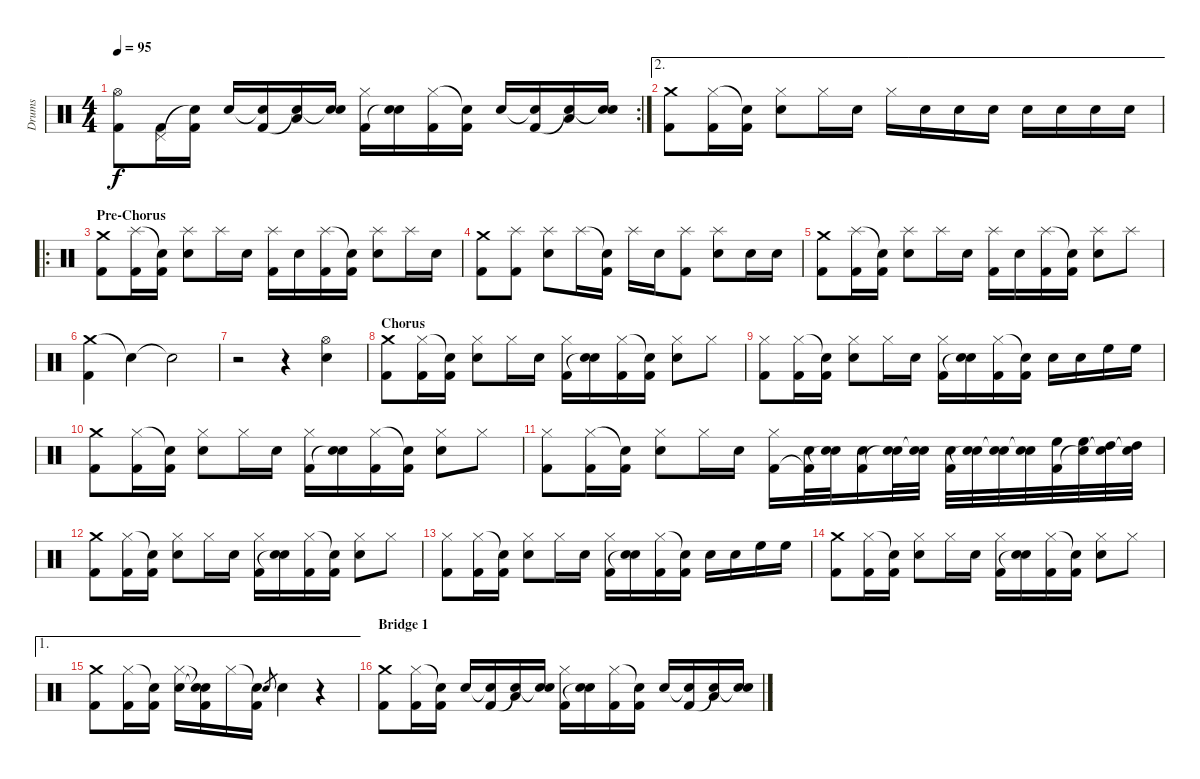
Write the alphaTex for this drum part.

\track ("Drums" "Drums") {instrument percussion}
\staff {score}
\articulation defaults
\rc 2
\ts (4 4)
\tempo 95
\clef neutral
\ks c
("Hi-Hat (open)" "Kick (hit) 2").8{dy f} ("Pedal Hi-Hat (hit)" "Kick (hit) 2").16 ("Snare (hit)"{t} "Kick (hit) 2").16 "Electric Snare (hit)".16 ("Snare (hit)"{t} "Kick (hit) 2").16 ("Low Tom (hit)" "Snare (hit)"{t}).16 ("Electric Snare (hit)" "Snare (hit)"{t}).16 ("Hi-Hat (closed)" "Kick (hit) 2").16 ("Electric Snare (hit)" "Snare (hit)"{t}).16 ("Hi-Hat (closed)" "Kick (hit) 2").16 ("Snare (hit)"{t} "Kick (hit) 2").16 "Electric Snare (hit)".16 ("Snare (hit)"{t} "Kick (hit) 2").16 ("Low Tom (hit)" "Snare (hit)"{t}).16 ("Electric Snare (hit)" "Snare (hit)"{t}).16 |
\ae 2
("Crash medium (hit)" "Kick (hit) 2").8 ("Hi-Hat (closed)" "Kick (hit) 2").16 ("Snare (hit)"{t} "Kick (hit) 2").16 ("Hi-Hat (closed)" "Electric Snare (hit)").8 "Hi-Hat (closed)".16 "Electric Snare (hit)".16 "Hi-Hat (closed)".16 "Electric Snare (hit)".16 "Electric Snare (hit)".16 "Electric Snare (hit)".16 "Electric Snare (hit)".16 "Electric Snare (hit)".16 "Electric Snare (hit)".16 "Electric Snare (hit)".16 |
\ro
\section ("" "Pre-Chorus")
("Crash medium (hit)" "Kick (hit) 2").8 ("Splash (hit)" "Kick (hit) 2").16 ("Snare (hit)"{t} "Kick (hit) 2").16 ("Splash (hit)" "Electric Snare (hit)").8 "Splash (hit)".16 "Electric Snare (hit)".16 ("Splash (hit)" "Kick (hit) 2").16 "Electric Snare (hit)".16 ("Splash (hit)" "Kick (hit) 2").16 ("Snare (hit)"{t} "Kick (hit) 2").16 ("Splash (hit)" "Electric Snare (hit)").8 "Splash (hit)".16 "Electric Snare (hit)".16 |
("Crash medium (hit)" "Kick (hit) 2").8 ("Splash (hit)" "Kick (hit) 2").8 ("Splash (hit)" "Electric Snare (hit)").8 "Splash (hit)".16 ("Snare (hit)"{t} "Kick (hit) 2").16 "Splash (hit)".16 "Electric Snare (hit)".16 ("Splash (hit)" "Kick (hit) 2").8 ("Splash (hit)" "Electric Snare (hit)").8 "Electric Snare (hit)".16 "Electric Snare (hit)".16 |
("Crash medium (hit)" "Kick (hit) 2").8 ("Splash (hit)" "Kick (hit) 2").16 ("Snare (hit)"{t} "Kick (hit) 2").16 ("Splash (hit)" "Electric Snare (hit)").8 "Splash (hit)".16 "Electric Snare (hit)".16 ("Splash (hit)" "Kick (hit) 2").16 "Electric Snare (hit)".16 ("Splash (hit)" "Kick (hit) 2").16 ("Snare (hit)"{t} "Kick (hit) 2").16 ("Splash (hit)" "Electric Snare (hit)").8 "Splash (hit)".8 |
("Crash medium (hit)" "Kick (hit) 2").4 "Snare (hit)"{t}.4 "Snare (hit)"{t}.2 |
r.2 r.4 ("Hi-Hat (open)" "Electric Snare (hit)").4 |
\section ("" "Chorus")
("Crash medium (hit)" "Kick (hit) 2").8 ("Hi-Hat (closed)" "Kick (hit) 2").16 ("Snare (hit)"{t} "Kick (hit) 2").16 ("Hi-Hat (closed)" "Electric Snare (hit)").8 "Hi-Hat (closed)".16 "Electric Snare (hit)".16 ("Hi-Hat (closed)" "Kick (hit) 2").16 ("Electric Snare (hit)" "Snare (hit)"{t}).16 ("Hi-Hat (closed)" "Kick (hit) 2").16 ("Snare (hit)"{t} "Kick (hit) 2").16 ("Hi-Hat (closed)" "Electric Snare (hit)").8 "Hi-Hat (closed)".8 |
("Hi-Hat (closed)" "Kick (hit) 2").8 ("Hi-Hat (closed)" "Kick (hit) 2").16 ("Snare (hit)"{t} "Kick (hit) 2").16 ("Hi-Hat (closed)" "Electric Snare (hit)").8 "Hi-Hat (closed)".16 "Electric Snare (hit)".16 ("Hi-Hat (closed)" "Kick (hit) 2").16 ("Electric Snare (hit)" "Snare (hit)"{t}).16 ("Hi-Hat (closed)" "Kick (hit) 2").16 ("Snare (hit)"{t} "Kick (hit) 2").16 "Electric Snare (hit)".16 "Electric Snare (hit)".16 "High Floor Tom (hit)".16 "High Floor Tom (hit)".16 |
("Crash medium (hit)" "Kick (hit) 2").8 ("Hi-Hat (closed)" "Kick (hit) 2").16 ("Snare (hit)"{t} "Kick (hit) 2").16 ("Hi-Hat (closed)" "Electric Snare (hit)").8 "Hi-Hat (closed)".16 "Electric Snare (hit)".16 ("Hi-Hat (closed)" "Kick (hit) 2").16 ("Electric Snare (hit)" "Snare (hit)"{t}).16 ("Hi-Hat (closed)" "Kick (hit) 2").16 ("Snare (hit)"{t} "Kick (hit) 2").16 ("Hi-Hat (closed)" "Electric Snare (hit)").8 "Hi-Hat (closed)".8 |
("Hi-Hat (closed)" "Kick (hit) 2").8 ("Hi-Hat (closed)" "Kick (hit) 2").16 ("Snare (hit)"{t} "Kick (hit) 2").16 ("Hi-Hat (closed)" "Electric Snare (hit)").8 "Hi-Hat (closed)".16 "Electric Snare (hit)".16 ("Hi-Hat (closed)" "Kick (hit) 2").16 ("Electric Snare (hit)" "Kick (hit) 2"{t}).32 ("Electric Snare (hit)" "Snare (hit)"{t}).32 ("Electric Snare (hit)" "Kick (hit) 2").16 ("Electric Snare (hit)" "Snare (hit)"{t}).32 ("Electric Snare (hit)" "Snare (hit)"{t}).32 ("Electric Snare (hit)" "Kick (hit) 2").32 ("Electric Snare (hit)" "Snare (hit)"{t}).32 ("Electric Snare (hit)" "Snare (hit)"{t}).32 ("Electric Snare (hit)" "Snare (hit)"{t}).32 ("High Floor Tom (hit)" "Kick (hit) 2").32 ("High Floor Tom (hit)" "Snare (hit)"{t}).32 ("High Tom (hit)" "Snare (hit)"{t}).32 ("High Tom (hit)" "Snare (hit)"{t}).32 |
("Crash medium (hit)" "Kick (hit) 2").8 ("Hi-Hat (closed)" "Kick (hit) 2").16 ("Snare (hit)"{t} "Kick (hit) 2").16 ("Hi-Hat (closed)" "Electric Snare (hit)").8 "Hi-Hat (closed)".16 "Electric Snare (hit)".16 ("Hi-Hat (closed)" "Kick (hit) 2").16 ("Electric Snare (hit)" "Snare (hit)"{t}).16 ("Hi-Hat (closed)" "Kick (hit) 2").16 ("Snare (hit)"{t} "Kick (hit) 2").16 ("Hi-Hat (closed)" "Electric Snare (hit)").8 "Hi-Hat (closed)".8 |
("Hi-Hat (closed)" "Kick (hit) 2").8 ("Hi-Hat (closed)" "Kick (hit) 2").16 ("Snare (hit)"{t} "Kick (hit) 2").16 ("Hi-Hat (closed)" "Electric Snare (hit)").8 "Hi-Hat (closed)".16 "Electric Snare (hit)".16 ("Hi-Hat (closed)" "Kick (hit) 2").16 ("Electric Snare (hit)" "Snare (hit)"{t}).16 ("Hi-Hat (closed)" "Kick (hit) 2").16 ("Snare (hit)"{t} "Kick (hit) 2").16 "Electric Snare (hit)".16 "Electric Snare (hit)".16 "High Floor Tom (hit)".16 "High Floor Tom (hit)".16 |
("Crash medium (hit)" "Kick (hit) 2").8 ("Hi-Hat (closed)" "Kick (hit) 2").16 ("Snare (hit)"{t} "Kick (hit) 2").16 ("Hi-Hat (closed)" "Electric Snare (hit)").8 "Hi-Hat (closed)".16 "Electric Snare (hit)".16 ("Hi-Hat (closed)" "Kick (hit) 2").16 ("Electric Snare (hit)" "Snare (hit)"{t}).16 ("Hi-Hat (closed)" "Kick (hit) 2").16 ("Snare (hit)"{t} "Kick (hit) 2").16 ("Hi-Hat (closed)" "Electric Snare (hit)").8 "Hi-Hat (closed)".8 |
\ae 1
("Crash medium (hit)" "Kick (hit) 2").8 ("Hi-Hat (closed)" "Kick (hit) 2").16 ("Snare (hit)"{t} "Kick (hit) 2").16 ("Hi-Hat (closed)" "Electric Snare (hit)").16 ("Snare (hit)"{t} "Snare (hit)"{t} "Kick (hit) 2").16 "Hi-Hat (closed)".16 ("Snare (hit)"{t} "Kick (hit) 2").16 "Electric Snare (hit)".8{gr} "Electric Snare (hit)".4 r.4 |
\section ("" "Bridge 1")
("Crash medium (hit)" "Kick (hit) 2").8 ("Hi-Hat (closed)" "Kick (hit) 2").16 ("Snare (hit)"{t} "Kick (hit) 2").16 "Electric Snare (hit)".16 ("Snare (hit)"{t} "Kick (hit) 2").16 ("Low Tom (hit)" "Snare (hit)"{t}).16 ("Electric Snare (hit)" "Snare (hit)"{t}).16 ("Hi-Hat (closed)" "Kick (hit) 2").16 ("Electric Snare (hit)" "Snare (hit)"{t}).16 ("Hi-Hat (closed)" "Kick (hit) 2").16 ("Snare (hit)"{t} "Kick (hit) 2").16 "Electric Snare (hit)".16 ("Snare (hit)"{t} "Kick (hit) 2").16 ("Low Tom (hit)" "Snare (hit)"{t}).16 ("Electric Snare (hit)" "Snare (hit)"{t}).16
